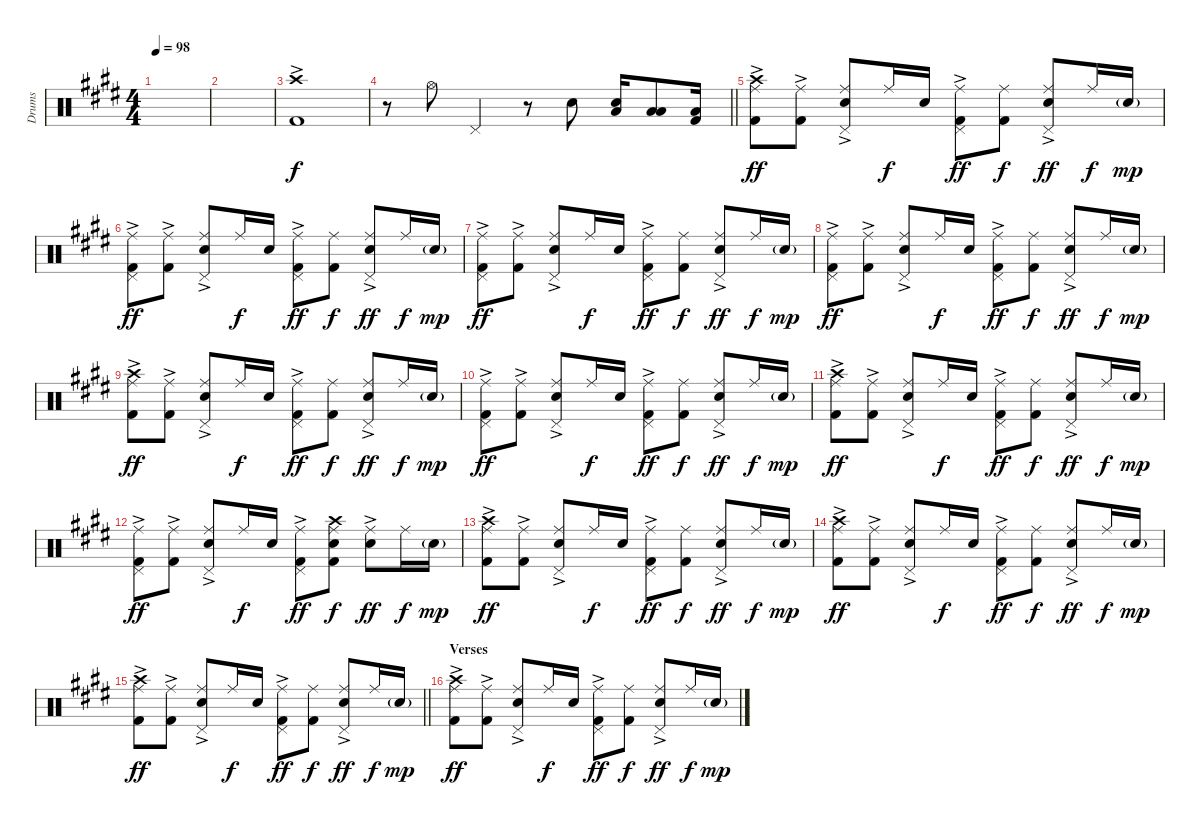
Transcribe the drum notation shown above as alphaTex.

\track ("Drums" "Drums") {instrument percussion}
\staff {score}
\articulation defaults
\ts (4 4)
\tempo 98
\clef neutral
\ks e
|
|
("Crash high (hit)" "Kick (hit) 2"{ac}).1 |
\barLineRight lightlight
r.8 "Hi-Hat (open)".8{dy f} "Pedal Hi-Hat (hit)".4 r.8 "Snare (hit) 2".8 ("Snare (hit) 2" "Low Tom (hit)").16 ("Low Tom (hit)" "Low Floor Tom (hit)").8 ("Low Floor Tom (hit)" "Kick (hit) 2").16 |
("Crash high (hit)" "Ride (middle)" "Kick (hit) 2"{ac}).8{dy ff} ("Ride (middle)" "Kick (hit) 2"{ac}).8 ("Pedal Hi-Hat (hit)" "Snare (hit) 2"{ac} "Ride (middle)").8 "Ride (middle)".16{dy f} "Snare (hit) 2".16 ("Pedal Hi-Hat (hit)" "Ride (middle)" "Kick (hit) 2"{ac}).8{dy ff} ("Ride (middle)" "Kick (hit) 2").8{dy f} ("Pedal Hi-Hat (hit)" "Snare (hit) 2"{ac} "Ride (middle)").8{dy ff} "Ride (middle)".16{dy f} "Snare (hit) 2"{g}.16{dy mp} |
("Pedal Hi-Hat (hit)" "Ride (middle)" "Kick (hit) 2"{ac}).8{dy ff} ("Ride (middle)" "Kick (hit) 2"{ac}).8 ("Pedal Hi-Hat (hit)" "Snare (hit) 2"{ac} "Ride (middle)").8 "Ride (middle)".16{dy f} "Snare (hit) 2".16 ("Pedal Hi-Hat (hit)" "Ride (middle)" "Kick (hit) 2"{ac}).8{dy ff} ("Ride (middle)" "Kick (hit) 2").8{dy f} ("Pedal Hi-Hat (hit)" "Snare (hit) 2"{ac} "Ride (middle)").8{dy ff} "Ride (middle)".16{dy f} "Snare (hit) 2"{g}.16{dy mp} |
("Pedal Hi-Hat (hit)" "Ride (middle)" "Kick (hit) 2"{ac}).8{dy ff} ("Ride (middle)" "Kick (hit) 2"{ac}).8 ("Pedal Hi-Hat (hit)" "Snare (hit) 2"{ac} "Ride (middle)").8 "Ride (middle)".16{dy f} "Snare (hit) 2".16 ("Pedal Hi-Hat (hit)" "Ride (middle)" "Kick (hit) 2"{ac}).8{dy ff} ("Ride (middle)" "Kick (hit) 2").8{dy f} ("Pedal Hi-Hat (hit)" "Snare (hit) 2"{ac} "Ride (middle)").8{dy ff} "Ride (middle)".16{dy f} "Snare (hit) 2"{g}.16{dy mp} |
("Pedal Hi-Hat (hit)" "Ride (middle)" "Kick (hit) 2"{ac}).8{dy ff} ("Ride (middle)" "Kick (hit) 2"{ac}).8 ("Pedal Hi-Hat (hit)" "Snare (hit) 2"{ac} "Ride (middle)").8 "Ride (middle)".16{dy f} "Snare (hit) 2".16 ("Pedal Hi-Hat (hit)" "Ride (middle)" "Kick (hit) 2"{ac}).8{dy ff} ("Ride (middle)" "Kick (hit) 2").8{dy f} ("Pedal Hi-Hat (hit)" "Snare (hit) 2"{ac} "Ride (middle)").8{dy ff} "Ride (middle)".16{dy f} "Snare (hit) 2"{g}.16{dy mp} |
("Crash high (hit)" "Ride (middle)" "Kick (hit) 2"{ac}).8{dy ff} ("Ride (middle)" "Kick (hit) 2"{ac}).8 ("Pedal Hi-Hat (hit)" "Snare (hit) 2"{ac} "Ride (middle)").8 "Ride (middle)".16{dy f} "Snare (hit) 2".16 ("Pedal Hi-Hat (hit)" "Ride (middle)" "Kick (hit) 2"{ac}).8{dy ff} ("Ride (middle)" "Kick (hit) 2").8{dy f} ("Pedal Hi-Hat (hit)" "Snare (hit) 2"{ac} "Ride (middle)").8{dy ff} "Ride (middle)".16{dy f} "Snare (hit) 2"{g}.16{dy mp} |
("Pedal Hi-Hat (hit)" "Ride (middle)" "Kick (hit) 2"{ac}).8{dy ff} ("Ride (middle)" "Kick (hit) 2"{ac}).8 ("Pedal Hi-Hat (hit)" "Snare (hit) 2"{ac} "Ride (middle)").8 "Ride (middle)".16{dy f} "Snare (hit) 2".16 ("Pedal Hi-Hat (hit)" "Ride (middle)" "Kick (hit) 2"{ac}).8{dy ff} ("Ride (middle)" "Kick (hit) 2").8{dy f} ("Pedal Hi-Hat (hit)" "Snare (hit) 2"{ac} "Ride (middle)").8{dy ff} "Ride (middle)".16{dy f} "Snare (hit) 2"{g}.16{dy mp} |
("Crash high (hit)" "Ride (middle)" "Kick (hit) 2"{ac}).8{dy ff} ("Ride (middle)" "Kick (hit) 2"{ac}).8 ("Pedal Hi-Hat (hit)" "Snare (hit) 2"{ac} "Ride (middle)").8 "Ride (middle)".16{dy f} "Snare (hit) 2".16 ("Pedal Hi-Hat (hit)" "Ride (middle)" "Kick (hit) 2"{ac}).8{dy ff} ("Ride (middle)" "Kick (hit) 2").8{dy f} ("Pedal Hi-Hat (hit)" "Snare (hit) 2"{ac} "Ride (middle)").8{dy ff} "Ride (middle)".16{dy f} "Snare (hit) 2"{g}.16{dy mp} |
("Pedal Hi-Hat (hit)" "Ride (middle)" "Kick (hit) 2"{ac}).8{dy ff} ("Ride (middle)" "Kick (hit) 2"{ac}).8 ("Pedal Hi-Hat (hit)" "Snare (hit) 2"{ac} "Ride (middle)").8 "Ride (middle)".16{dy f} "Snare (hit) 2".16 ("Pedal Hi-Hat (hit)" "Ride (middle)" "Kick (hit) 2"{ac}).8{dy ff} ("Crash high (hit)" "Snare (hit) 2" "Ride (middle)" "Kick (hit) 2").8{dy f} ("Snare (hit) 2"{ac} "Ride (middle)").8{dy ff} "Ride (middle)".16{dy f} "Snare (hit) 2"{g}.16{dy mp} |
("Crash high (hit)" "Ride (middle)" "Kick (hit) 2"{ac}).8{dy ff} ("Ride (middle)" "Kick (hit) 2"{ac}).8 ("Pedal Hi-Hat (hit)" "Snare (hit) 2"{ac} "Ride (middle)").8 "Ride (middle)".16{dy f} "Snare (hit) 2".16 ("Pedal Hi-Hat (hit)" "Ride (middle)" "Kick (hit) 2"{ac}).8{dy ff} ("Ride (middle)" "Kick (hit) 2").8{dy f} ("Pedal Hi-Hat (hit)" "Snare (hit) 2"{ac} "Ride (middle)").8{dy ff} "Ride (middle)".16{dy f} "Snare (hit) 2"{g}.16{dy mp} |
("Crash high (hit)" "Ride (middle)" "Kick (hit) 2"{ac}).8{dy ff} ("Ride (middle)" "Kick (hit) 2"{ac}).8 ("Pedal Hi-Hat (hit)" "Snare (hit) 2"{ac} "Ride (middle)").8 "Ride (middle)".16{dy f} "Snare (hit) 2".16 ("Pedal Hi-Hat (hit)" "Ride (middle)" "Kick (hit) 2"{ac}).8{dy ff} ("Ride (middle)" "Kick (hit) 2").8{dy f} ("Pedal Hi-Hat (hit)" "Snare (hit) 2"{ac} "Ride (middle)").8{dy ff} "Ride (middle)".16{dy f} "Snare (hit) 2"{g}.16{dy mp} |
\barLineRight lightlight
("Crash high (hit)" "Ride (middle)" "Kick (hit) 2"{ac}).8{dy ff} ("Ride (middle)" "Kick (hit) 2"{ac}).8 ("Pedal Hi-Hat (hit)" "Snare (hit) 2"{ac} "Ride (middle)").8 "Ride (middle)".16{dy f} "Snare (hit) 2".16 ("Pedal Hi-Hat (hit)" "Ride (middle)" "Kick (hit) 2"{ac}).8{dy ff} ("Ride (middle)" "Kick (hit) 2").8{dy f} ("Pedal Hi-Hat (hit)" "Snare (hit) 2"{ac} "Ride (middle)").8{dy ff} "Ride (middle)".16{dy f} "Snare (hit) 2"{g}.16{dy mp} |
\section ("" "Verses")
("Crash high (hit)" "Ride (middle)" "Kick (hit) 2"{ac}).8{dy ff} ("Ride (middle)" "Kick (hit) 2"{ac}).8 ("Pedal Hi-Hat (hit)" "Snare (hit) 2"{ac} "Ride (middle)").8 "Ride (middle)".16{dy f} "Snare (hit) 2".16 ("Pedal Hi-Hat (hit)" "Ride (middle)" "Kick (hit) 2"{ac}).8{dy ff} ("Ride (middle)" "Kick (hit) 2").8{dy f} ("Pedal Hi-Hat (hit)" "Snare (hit) 2"{ac} "Ride (middle)").8{dy ff} "Ride (middle)".16{dy f} "Snare (hit) 2"{g}.16{dy mp}
